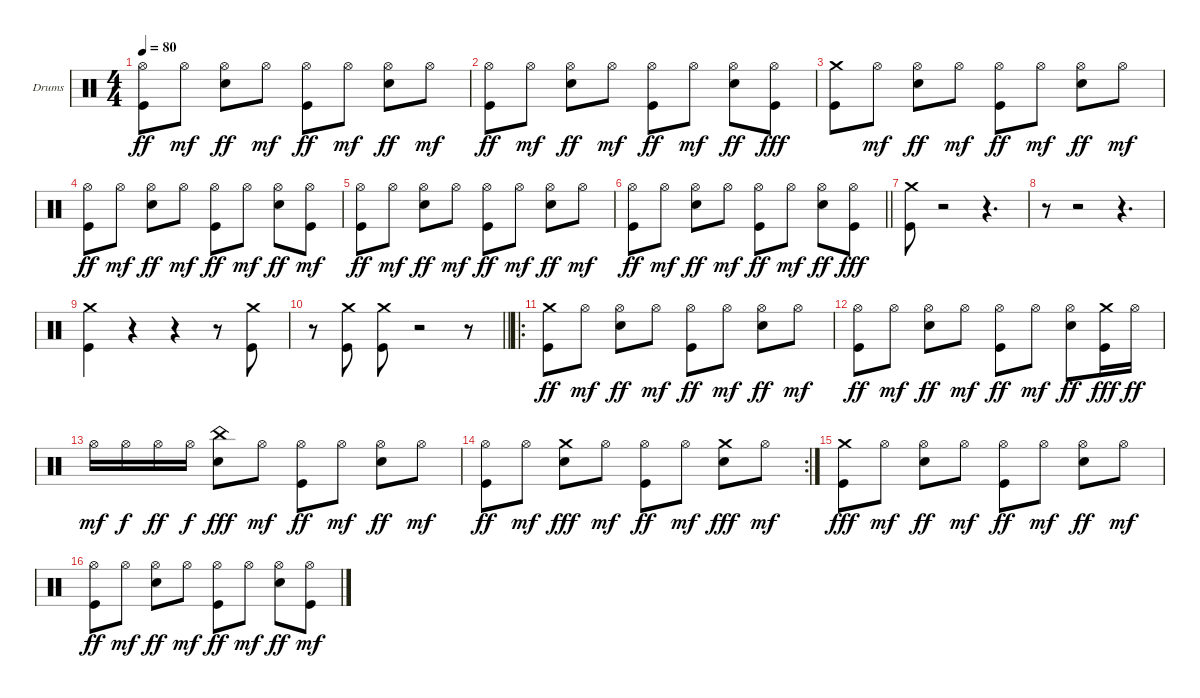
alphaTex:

\bracketExtendMode groupsimilarinstruments
\firstSystemTrackNameOrientation horizontal
\otherSystemsTrackNameOrientation horizontal
\track ("Drumkit" "Drums") {instrument percussion}
\staff {score}
\articulation defaults
\ts (4 4)
\tempo 80
\clef neutral
\ks c
("Hi-Hat (open)" "Kick (hit)").8{dy ff} "Hi-Hat (open)".8{dy mf} ("Hi-Hat (open)" "Snare (hit) 2").8{dy ff} "Hi-Hat (open)".8{dy mf} ("Hi-Hat (open)" "Kick (hit)").8{dy ff} "Hi-Hat (open)".8{dy mf} ("Hi-Hat (open)" "Snare (hit) 2").8{dy ff} "Hi-Hat (open)".8{dy mf} |
("Hi-Hat (open)" "Kick (hit)").8{dy ff} "Hi-Hat (open)".8{dy mf} ("Hi-Hat (open)" "Snare (hit) 2").8{dy ff} "Hi-Hat (open)".8{dy mf} ("Hi-Hat (open)" "Kick (hit)").8{dy ff} "Hi-Hat (open)".8{dy mf} ("Hi-Hat (open)" "Snare (hit) 2").8{dy ff} ("Hi-Hat (open)" "Kick (hit)").8{dy fff} |
("Crash medium (hit)" "Kick (hit)").8 "Hi-Hat (open)".8{dy mf} ("Hi-Hat (open)" "Snare (hit) 2").8{dy ff} "Hi-Hat (open)".8{dy mf} ("Hi-Hat (open)" "Kick (hit)").8{dy ff} "Hi-Hat (open)".8{dy mf} ("Hi-Hat (open)" "Snare (hit) 2").8{dy ff} "Hi-Hat (open)".8{dy mf} |
("Hi-Hat (open)" "Kick (hit)").8{dy ff} "Hi-Hat (open)".8{dy mf} ("Hi-Hat (open)" "Snare (hit) 2").8{dy ff} "Hi-Hat (open)".8{dy mf} ("Hi-Hat (open)" "Kick (hit)").8{dy ff} "Hi-Hat (open)".8{dy mf} ("Hi-Hat (open)" "Snare (hit) 2").8{dy ff} ("Hi-Hat (open)" "Kick (hit)").8{dy mf} |
("Hi-Hat (open)" "Kick (hit)").8{dy ff} "Hi-Hat (open)".8{dy mf} ("Hi-Hat (open)" "Snare (hit) 2").8{dy ff} "Hi-Hat (open)".8{dy mf} ("Hi-Hat (open)" "Kick (hit)").8{dy ff} "Hi-Hat (open)".8{dy mf} ("Hi-Hat (open)" "Snare (hit) 2").8{dy ff} "Hi-Hat (open)".8{dy mf} |
\barLineRight lightlight
("Hi-Hat (open)" "Kick (hit)").8{dy ff} "Hi-Hat (open)".8{dy mf} ("Hi-Hat (open)" "Snare (hit) 2").8{dy ff} "Hi-Hat (open)".8{dy mf} ("Hi-Hat (open)" "Kick (hit)").8{dy ff} "Hi-Hat (open)".8{dy mf} ("Hi-Hat (open)" "Snare (hit) 2").8{dy ff} ("Hi-Hat (open)" "Kick (hit)").8{dy fff} |
("Crash medium (hit)" "Kick (hit)").8 r.2 r.4{d} |
r.8 r.2 r.4{d} |
("Crash medium (hit)" "Kick (hit)").4 r.4 r.4 r.8 ("Crash medium (hit)" "Kick (hit)").8 |
\barLineRight lightlight
r.8 ("Crash medium (hit)" "Kick (hit)").8 ("Crash medium (hit)" "Kick (hit)").8 r.2 r.8 |
\ro
("Crash medium (hit)" "Kick (hit)").8{dy ff} "Hi-Hat (open)".8{dy mf} ("Hi-Hat (open)" "Snare (hit) 2").8{dy ff} "Hi-Hat (open)".8{dy mf} ("Hi-Hat (open)" "Kick (hit)").8{dy ff} "Hi-Hat (open)".8{dy mf} ("Hi-Hat (open)" "Snare (hit) 2").8{dy ff} "Hi-Hat (open)".8{dy mf} |
("Hi-Hat (open)" "Kick (hit)").8{dy ff} "Hi-Hat (open)".8{dy mf} ("Hi-Hat (open)" "Snare (hit) 2").8{dy ff} "Hi-Hat (open)".8{dy mf} ("Hi-Hat (open)" "Kick (hit)").8{dy ff} "Hi-Hat (open)".8{dy mf} ("Hi-Hat (open)" "Snare (hit) 2").8{dy ff} ("Crash medium (hit)" "Kick (hit)").16{dy fff} "Hi-Hat (open)".16{dy ff} |
"Hi-Hat (open)".16{dy mf} "Hi-Hat (open)".16{dy f} "Hi-Hat (open)".16{dy ff} "Hi-Hat (open)".16{dy f} ("China (hit)" "Snare (hit) 2").8{dy fff} "Hi-Hat (open)".8{dy mf} ("Hi-Hat (open)" "Kick (hit)").8{dy ff} "Hi-Hat (open)".8{dy mf} ("Hi-Hat (open)" "Snare (hit) 2").8{dy ff} "Hi-Hat (open)".8{dy mf} |
\rc 2
("Hi-Hat (open)" "Kick (hit)").8{dy ff} "Hi-Hat (open)".8{dy mf} ("Crash medium (hit)" "Snare (hit) 2").8{dy fff} "Hi-Hat (open)".8{dy mf} ("Hi-Hat (open)" "Kick (hit)").8{dy ff} "Hi-Hat (open)".8{dy mf} ("Crash medium (hit)" "Snare (hit) 2").8{dy fff} "Hi-Hat (open)".8{dy mf} |
("Crash medium (hit)" "Kick (hit)").8{dy fff} "Hi-Hat (open)".8{dy mf} ("Hi-Hat (open)" "Snare (hit) 2").8{dy ff} "Hi-Hat (open)".8{dy mf} ("Hi-Hat (open)" "Kick (hit)").8{dy ff} "Hi-Hat (open)".8{dy mf} ("Hi-Hat (open)" "Snare (hit) 2").8{dy ff} "Hi-Hat (open)".8{dy mf} |
("Hi-Hat (open)" "Kick (hit)").8{dy ff} "Hi-Hat (open)".8{dy mf} ("Hi-Hat (open)" "Snare (hit) 2").8{dy ff} "Hi-Hat (open)".8{dy mf} ("Hi-Hat (open)" "Kick (hit)").8{dy ff} "Hi-Hat (open)".8{dy mf} ("Hi-Hat (open)" "Snare (hit) 2").8{dy ff} ("Hi-Hat (open)" "Kick (hit)").8{dy mf}
